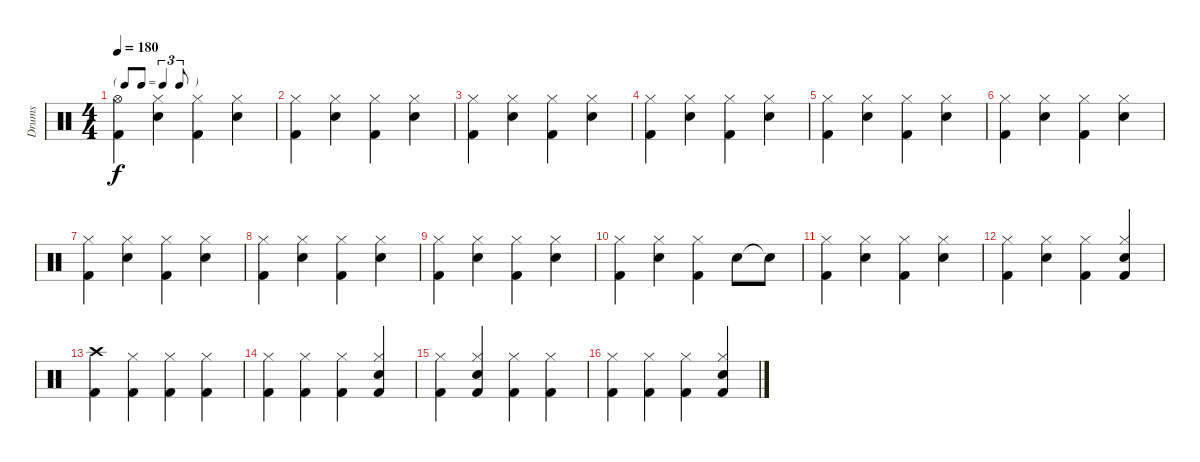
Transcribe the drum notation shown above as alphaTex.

\track ("Drums" "Drums") {instrument percussion}
\staff {score}
\articulation defaults
\ts (4 4)
\tf triplet8th
\tempo 180
\clef neutral
\ks c
("Hi-Hat (open)" "Kick (hit) 2").4{dy f} ("Hi-Hat (closed)" "Snare (hit) 2").4 ("Hi-Hat (closed)" "Kick (hit) 2").4 ("Hi-Hat (closed)" "Snare (hit) 2").4 |
("Hi-Hat (closed)" "Kick (hit) 2").4 ("Hi-Hat (closed)" "Snare (hit) 2").4 ("Hi-Hat (closed)" "Kick (hit) 2").4 ("Hi-Hat (closed)" "Snare (hit) 2").4 |
("Hi-Hat (closed)" "Kick (hit) 2").4 ("Hi-Hat (closed)" "Snare (hit) 2").4 ("Hi-Hat (closed)" "Kick (hit) 2").4 ("Hi-Hat (closed)" "Snare (hit) 2").4 |
("Hi-Hat (closed)" "Kick (hit) 2").4 ("Hi-Hat (closed)" "Snare (hit) 2").4 ("Hi-Hat (closed)" "Kick (hit) 2").4 ("Hi-Hat (closed)" "Snare (hit) 2").4 |
("Hi-Hat (closed)" "Kick (hit) 2").4 ("Hi-Hat (closed)" "Snare (hit) 2").4 ("Hi-Hat (closed)" "Kick (hit) 2").4 ("Hi-Hat (closed)" "Snare (hit) 2").4 |
("Hi-Hat (closed)" "Kick (hit) 2").4 ("Hi-Hat (closed)" "Snare (hit) 2").4 ("Hi-Hat (closed)" "Kick (hit) 2").4 ("Hi-Hat (closed)" "Snare (hit) 2").4 |
("Hi-Hat (closed)" "Kick (hit) 2").4 ("Hi-Hat (closed)" "Snare (hit) 2").4 ("Hi-Hat (closed)" "Kick (hit) 2").4 ("Hi-Hat (closed)" "Snare (hit) 2").4 |
("Hi-Hat (closed)" "Kick (hit) 2").4 ("Hi-Hat (closed)" "Snare (hit) 2").4 ("Hi-Hat (closed)" "Kick (hit) 2").4 ("Hi-Hat (closed)" "Snare (hit) 2").4 |
("Hi-Hat (closed)" "Kick (hit) 2").4 ("Hi-Hat (closed)" "Snare (hit) 2").4 ("Hi-Hat (closed)" "Kick (hit) 2").4 ("Hi-Hat (closed)" "Snare (hit) 2").4 |
("Hi-Hat (closed)" "Kick (hit) 2").4 ("Hi-Hat (closed)" "Snare (hit) 2").4 ("Hi-Hat (closed)" "Kick (hit) 2").4 "Snare (hit) 2".8 "Snare (hit) 2"{t}.8 |
("Hi-Hat (closed)" "Kick (hit) 2").4 ("Hi-Hat (closed)" "Snare (hit) 2").4 ("Hi-Hat (closed)" "Kick (hit) 2").4 ("Hi-Hat (closed)" "Snare (hit) 2").4 |
("Hi-Hat (closed)" "Kick (hit) 2").4 ("Hi-Hat (closed)" "Snare (hit) 2").4 ("Hi-Hat (closed)" "Kick (hit) 2").4 ("Hi-Hat (closed)" "Snare (hit) 2" "Kick (hit) 2").4 |
("Crash high (hit)" "Kick (hit) 2").4 ("Hi-Hat (closed)" "Kick (hit) 2").4 ("Hi-Hat (closed)" "Kick (hit) 2").4 ("Hi-Hat (closed)" "Kick (hit) 2").4 |
("Hi-Hat (closed)" "Kick (hit) 2").4 ("Hi-Hat (closed)" "Kick (hit) 2").4 ("Hi-Hat (closed)" "Kick (hit) 2").4 ("Hi-Hat (closed)" "Snare (hit) 2" "Kick (hit) 2").4 |
("Hi-Hat (closed)" "Kick (hit) 2").4 ("Hi-Hat (closed)" "Snare (hit) 2" "Kick (hit) 2").4 ("Hi-Hat (closed)" "Kick (hit) 2").4 ("Hi-Hat (closed)" "Kick (hit) 2").4 |
("Hi-Hat (closed)" "Kick (hit) 2").4 ("Hi-Hat (closed)" "Kick (hit) 2").4 ("Hi-Hat (closed)" "Kick (hit) 2").4 ("Hi-Hat (closed)" "Snare (hit) 2" "Kick (hit) 2").4
